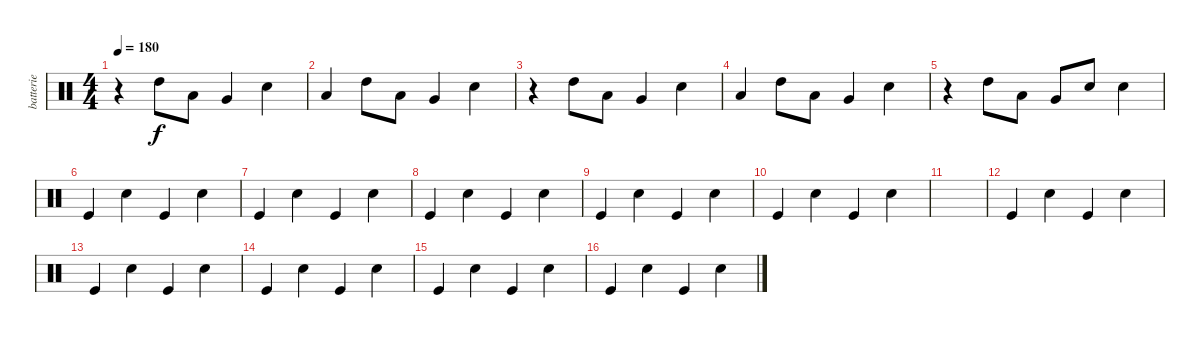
\track ("batterie" "batterie") {instrument percussion}
\staff {score}
\articulation defaults
\ts (4 4)
\tempo 180
\clef neutral
\ks c
r.4{dy f} "High Tom (hit)".8 "Low Tom (hit)".8 "Very Low Tom (hit)".4 "Snare (hit) 2".4 |
"Low Floor Tom (hit)".4 "High Tom (hit)".8 "Low Tom (hit)".8 "Very Low Tom (hit)".4 "Snare (hit) 2".4 |
r.4 "High Tom (hit)".8 "Low Tom (hit)".8 "Very Low Tom (hit)".4 "Snare (hit) 2".4 |
"Low Floor Tom (hit)".4 "High Tom (hit)".8 "Low Tom (hit)".8 "Very Low Tom (hit)".4 "Snare (hit) 2".4 |
r.4 "High Tom (hit)".8 "Low Tom (hit)".8 "Very Low Tom (hit)".8 "Snare (hit) 2".8 "Snare (hit) 2".4 |
"Kick (hit)".4 "Snare (hit) 2".4 "Kick (hit)".4 "Snare (hit) 2".4 |
"Kick (hit)".4 "Snare (hit) 2".4 "Kick (hit)".4 "Snare (hit) 2".4 |
"Kick (hit)".4 "Snare (hit) 2".4 "Kick (hit)".4 "Snare (hit) 2".4 |
"Kick (hit)".4 "Snare (hit) 2".4 "Kick (hit)".4 "Snare (hit) 2".4 |
"Kick (hit)".4 "Snare (hit) 2".4 "Kick (hit)".4 "Snare (hit) 2".4 |
|
"Kick (hit)".4 "Snare (hit) 2".4 "Kick (hit)".4 "Snare (hit) 2".4 |
"Kick (hit)".4 "Snare (hit) 2".4 "Kick (hit)".4 "Snare (hit) 2".4 |
"Kick (hit)".4 "Snare (hit) 2".4 "Kick (hit)".4 "Snare (hit) 2".4 |
"Kick (hit)".4 "Snare (hit) 2".4 "Kick (hit)".4 "Snare (hit) 2".4 |
"Kick (hit)".4 "Snare (hit) 2".4 "Kick (hit)".4 "Snare (hit) 2".4
